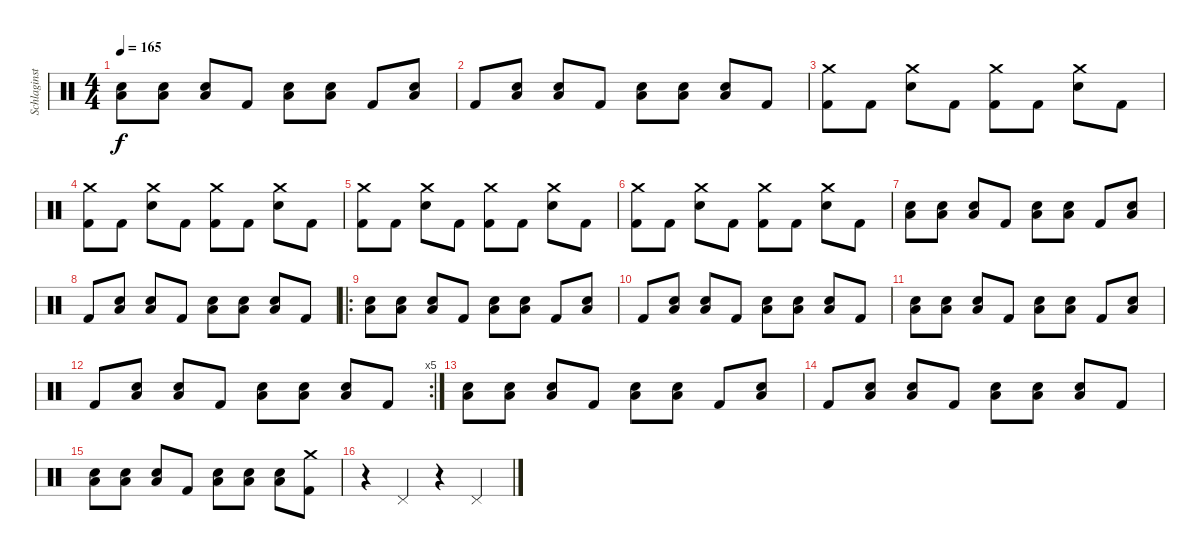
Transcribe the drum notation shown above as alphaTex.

\track ("Schlaginstrumente - Auswahl" "Schlaginst") {instrument percussion}
\staff {score}
\articulation defaults
\ts (4 4)
\tempo 165
\clef neutral
\ks c
("Low Floor Tom (hit)" "Snare (hit) 2").8{dy f} ("Low Floor Tom (hit)" "Snare (hit) 2").8 ("Low Floor Tom (hit)" "Snare (hit) 2").8 "Kick (hit) 2".8 ("Low Floor Tom (hit)" "Snare (hit) 2").8 ("Low Floor Tom (hit)" "Snare (hit) 2").8 "Kick (hit) 2".8 ("Low Floor Tom (hit)" "Snare (hit) 2").8 |
"Kick (hit) 2".8 ("Low Floor Tom (hit)" "Snare (hit) 2").8 ("Low Floor Tom (hit)" "Snare (hit) 2").8 "Kick (hit) 2".8 ("Low Floor Tom (hit)" "Snare (hit) 2").8 ("Low Floor Tom (hit)" "Snare (hit) 2").8 ("Low Floor Tom (hit)" "Snare (hit) 2").8 "Kick (hit) 2".8 |
("Crash medium (hit)" "Kick (hit) 2").8 "Kick (hit) 2".8 ("Crash medium (hit)" "Snare (hit) 2").8 "Kick (hit) 2".8 ("Crash medium (hit)" "Kick (hit) 2").8 "Kick (hit) 2".8 ("Crash medium (hit)" "Snare (hit) 2").8 "Kick (hit) 2".8 |
("Crash medium (hit)" "Kick (hit) 2").8 "Kick (hit) 2".8 ("Crash medium (hit)" "Snare (hit) 2").8 "Kick (hit) 2".8 ("Crash medium (hit)" "Kick (hit) 2").8 "Kick (hit) 2".8 ("Crash medium (hit)" "Snare (hit) 2").8 "Kick (hit) 2".8 |
("Crash medium (hit)" "Kick (hit) 2").8 "Kick (hit) 2".8 ("Crash medium (hit)" "Snare (hit) 2").8 "Kick (hit) 2".8 ("Crash medium (hit)" "Kick (hit) 2").8 "Kick (hit) 2".8 ("Crash medium (hit)" "Snare (hit) 2").8 "Kick (hit) 2".8 |
("Crash medium (hit)" "Kick (hit) 2").8 "Kick (hit) 2".8 ("Crash medium (hit)" "Snare (hit) 2").8 "Kick (hit) 2".8 ("Crash medium (hit)" "Kick (hit) 2").8 "Kick (hit) 2".8 ("Crash medium (hit)" "Snare (hit) 2").8 "Kick (hit) 2".8 |
("Low Floor Tom (hit)" "Snare (hit) 2").8 ("Low Floor Tom (hit)" "Snare (hit) 2").8 ("Low Floor Tom (hit)" "Snare (hit) 2").8 "Kick (hit) 2".8 ("Low Floor Tom (hit)" "Snare (hit) 2").8 ("Low Floor Tom (hit)" "Snare (hit) 2").8 "Kick (hit) 2".8 ("Low Floor Tom (hit)" "Snare (hit) 2").8 |
"Kick (hit) 2".8 ("Low Floor Tom (hit)" "Snare (hit) 2").8 ("Low Floor Tom (hit)" "Snare (hit) 2").8 "Kick (hit) 2".8 ("Low Floor Tom (hit)" "Snare (hit) 2").8 ("Low Floor Tom (hit)" "Snare (hit) 2").8 ("Low Floor Tom (hit)" "Snare (hit) 2").8 "Kick (hit) 2".8 |
\ro
("Low Floor Tom (hit)" "Snare (hit) 2").8 ("Low Floor Tom (hit)" "Snare (hit) 2").8 ("Low Floor Tom (hit)" "Snare (hit) 2").8 "Kick (hit) 2".8 ("Low Floor Tom (hit)" "Snare (hit) 2").8 ("Low Floor Tom (hit)" "Snare (hit) 2").8 "Kick (hit) 2".8 ("Low Floor Tom (hit)" "Snare (hit) 2").8 |
"Kick (hit) 2".8 ("Low Floor Tom (hit)" "Snare (hit) 2").8 ("Low Floor Tom (hit)" "Snare (hit) 2").8 "Kick (hit) 2".8 ("Low Floor Tom (hit)" "Snare (hit) 2").8 ("Low Floor Tom (hit)" "Snare (hit) 2").8 ("Low Floor Tom (hit)" "Snare (hit) 2").8 "Kick (hit) 2".8 |
("Low Floor Tom (hit)" "Snare (hit) 2").8 ("Low Floor Tom (hit)" "Snare (hit) 2").8 ("Low Floor Tom (hit)" "Snare (hit) 2").8 "Kick (hit) 2".8 ("Low Floor Tom (hit)" "Snare (hit) 2").8 ("Low Floor Tom (hit)" "Snare (hit) 2").8 "Kick (hit) 2".8 ("Low Floor Tom (hit)" "Snare (hit) 2").8 |
\rc 5 "Kick (hit) 2".8
("Low Floor Tom (hit)" "Snare (hit) 2").8 ("Low Floor Tom (hit)" "Snare (hit) 2").8 "Kick (hit) 2".8 ("Low Floor Tom (hit)" "Snare (hit) 2").8 ("Low Floor Tom (hit)" "Snare (hit) 2").8 ("Low Floor Tom (hit)" "Snare (hit) 2").8 "Kick (hit) 2".8 |
("Low Floor Tom (hit)" "Snare (hit) 2").8 ("Low Floor Tom (hit)" "Snare (hit) 2").8 ("Low Floor Tom (hit)" "Snare (hit) 2").8 "Kick (hit) 2".8 ("Low Floor Tom (hit)" "Snare (hit) 2").8 ("Low Floor Tom (hit)" "Snare (hit) 2").8 "Kick (hit) 2".8 ("Low Floor Tom (hit)" "Snare (hit) 2").8 |
"Kick (hit) 2".8 ("Low Floor Tom (hit)" "Snare (hit) 2").8 ("Low Floor Tom (hit)" "Snare (hit) 2").8 "Kick (hit) 2".8 ("Low Floor Tom (hit)" "Snare (hit) 2").8 ("Low Floor Tom (hit)" "Snare (hit) 2").8 ("Low Floor Tom (hit)" "Snare (hit) 2").8 "Kick (hit) 2".8 |
("Low Floor Tom (hit)" "Snare (hit) 2").8 ("Low Floor Tom (hit)" "Snare (hit) 2").8 ("Low Floor Tom (hit)" "Snare (hit) 2").8 "Kick (hit) 2".8 ("Low Floor Tom (hit)" "Snare (hit) 2").8 ("Low Floor Tom (hit)" "Snare (hit) 2").8 ("Low Floor Tom (hit)" "Snare (hit) 2").8 ("Crash medium (hit)" "Kick (hit) 2").8 |
r.4 "Pedal Hi-Hat (hit)".4 r.4 "Pedal Hi-Hat (hit)".4
